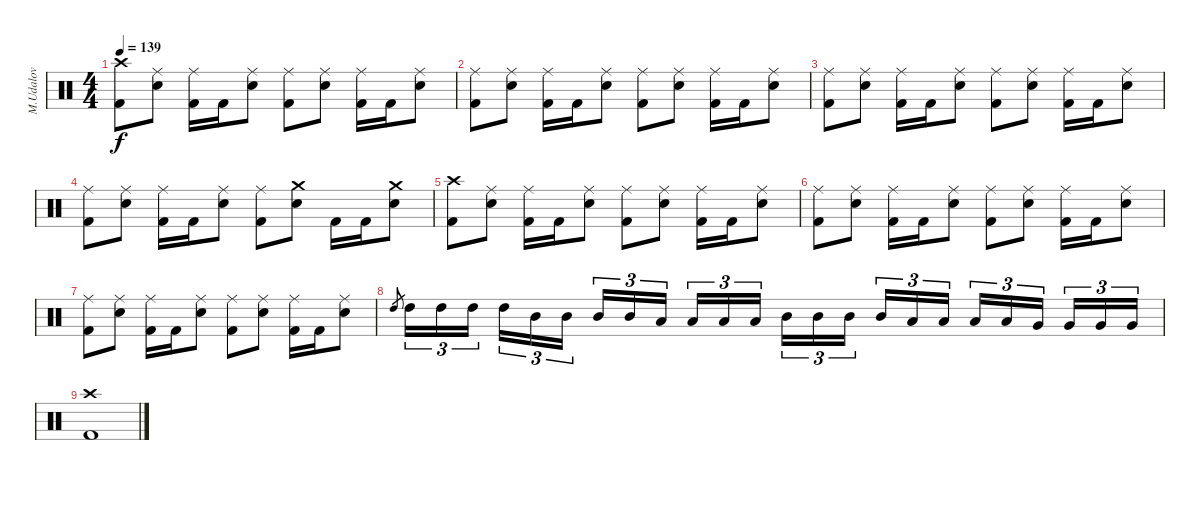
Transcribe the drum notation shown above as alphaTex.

\track ("M.Udalov" "M.Udalov") {instrument percussion}
\staff {score}
\articulation defaults
\ts (4 4)
\tempo 139
\clef neutral
\ks c
("Crash high (hit)" "Kick (hit) 2").8{dy f} ("Ride (middle)" "Snare (hit) 2").8 ("Ride (middle)" "Kick (hit) 2").16 "Kick (hit) 2".16 ("Ride (middle)" "Snare (hit) 2").8 ("Ride (middle)" "Kick (hit) 2").8 ("Ride (middle)" "Snare (hit) 2").8 ("Ride (middle)" "Kick (hit) 2").16 "Kick (hit) 2".16 ("Ride (middle)" "Snare (hit) 2").8 |
("Ride (middle)" "Kick (hit) 2").8 ("Ride (middle)" "Snare (hit) 2").8 ("Ride (middle)" "Kick (hit) 2").16 "Kick (hit) 2".16 ("Ride (middle)" "Snare (hit) 2").8 ("Ride (middle)" "Kick (hit) 2").8 ("Ride (middle)" "Snare (hit) 2").8 ("Ride (middle)" "Kick (hit) 2").16 "Kick (hit) 2".16 ("Ride (middle)" "Snare (hit) 2").8 |
("Ride (middle)" "Kick (hit) 2").8 ("Ride (middle)" "Snare (hit) 2").8 ("Ride (middle)" "Kick (hit) 2").16 "Kick (hit) 2".16 ("Ride (middle)" "Snare (hit) 2").8 ("Ride (middle)" "Kick (hit) 2").8 ("Ride (middle)" "Snare (hit) 2").8 ("Ride (middle)" "Kick (hit) 2").16 "Kick (hit) 2".16 ("Ride (middle)" "Snare (hit) 2").8 |
("Ride (middle)" "Kick (hit) 2").8 ("Ride (middle)" "Snare (hit) 2").8 ("Ride (middle)" "Kick (hit) 2").16 "Kick (hit) 2".16 ("Ride (middle)" "Snare (hit) 2").8 ("Ride (middle)" "Kick (hit) 2").8 ("Crash medium (hit)" "Snare (hit) 2").8 "Kick (hit) 2".16 "Kick (hit) 2".16 ("Crash medium (hit)" "Snare (hit) 2").8 |
("Crash high (hit)" "Kick (hit) 2").8 ("Ride (middle)" "Snare (hit) 2").8 ("Ride (middle)" "Kick (hit) 2").16 "Kick (hit) 2".16 ("Ride (middle)" "Snare (hit) 2").8 ("Ride (middle)" "Kick (hit) 2").8 ("Ride (middle)" "Snare (hit) 2").8 ("Ride (middle)" "Kick (hit) 2").16 "Kick (hit) 2".16 ("Ride (middle)" "Snare (hit) 2").8 |
("Ride (middle)" "Kick (hit) 2").8 ("Ride (middle)" "Snare (hit) 2").8 ("Ride (middle)" "Kick (hit) 2").16 "Kick (hit) 2".16 ("Ride (middle)" "Snare (hit) 2").8 ("Ride (middle)" "Kick (hit) 2").8 ("Ride (middle)" "Snare (hit) 2").8 ("Ride (middle)" "Kick (hit) 2").16 "Kick (hit) 2".16 ("Ride (middle)" "Snare (hit) 2").8 |
("Ride (middle)" "Kick (hit) 2").8 ("Ride (middle)" "Snare (hit) 2").8 ("Ride (middle)" "Kick (hit) 2").16 "Kick (hit) 2".16 ("Ride (middle)" "Snare (hit) 2").8 ("Ride (middle)" "Kick (hit) 2").8 ("Ride (middle)" "Snare (hit) 2").8 ("Ride (middle)" "Kick (hit) 2").16 "Kick (hit) 2".16 ("Ride (middle)" "Snare (hit) 2").8 |
"High Tom (hit)".8{gr} "High Tom (hit)".16{tu (3 2)} "High Tom (hit)".16{tu (3 2)} "High Tom (hit)".16{tu (3 2)} "High Tom (hit)".16{tu (3 2)} "Mid Tom (hit)".16{tu (3 2)} "Mid Tom (hit)".16{tu (3 2)} "Mid Tom (hit)".16{tu (3 2)} "Mid Tom (hit)".16{tu (3 2)} "Low Tom (hit)".16{tu (3 2)} "Low Tom (hit)".16{tu (3 2)} "Low Tom (hit)".16{tu (3 2)} "Low Tom (hit)".16{tu (3 2)} "Mid Tom (hit)".16{tu (3 2)} "Mid Tom (hit)".16{tu (3 2)} "Mid Tom (hit)".16{tu (3 2)} "Mid Tom (hit)".16{tu (3 2)} "Low Tom (hit)".16{tu (3 2)} "Low Tom (hit)".16{tu (3 2)} "Low Tom (hit)".16{tu (3 2)} "Low Tom (hit)".16{tu (3 2)} "Very Low Tom (hit)".16{tu (3 2)} "Very Low Tom (hit)".16{tu (3 2)} "Very Low Tom (hit)".16{tu (3 2)} "Very Low Tom (hit)".16{tu (3 2)} |
("Crash high (hit)" "Kick (hit) 2").1
